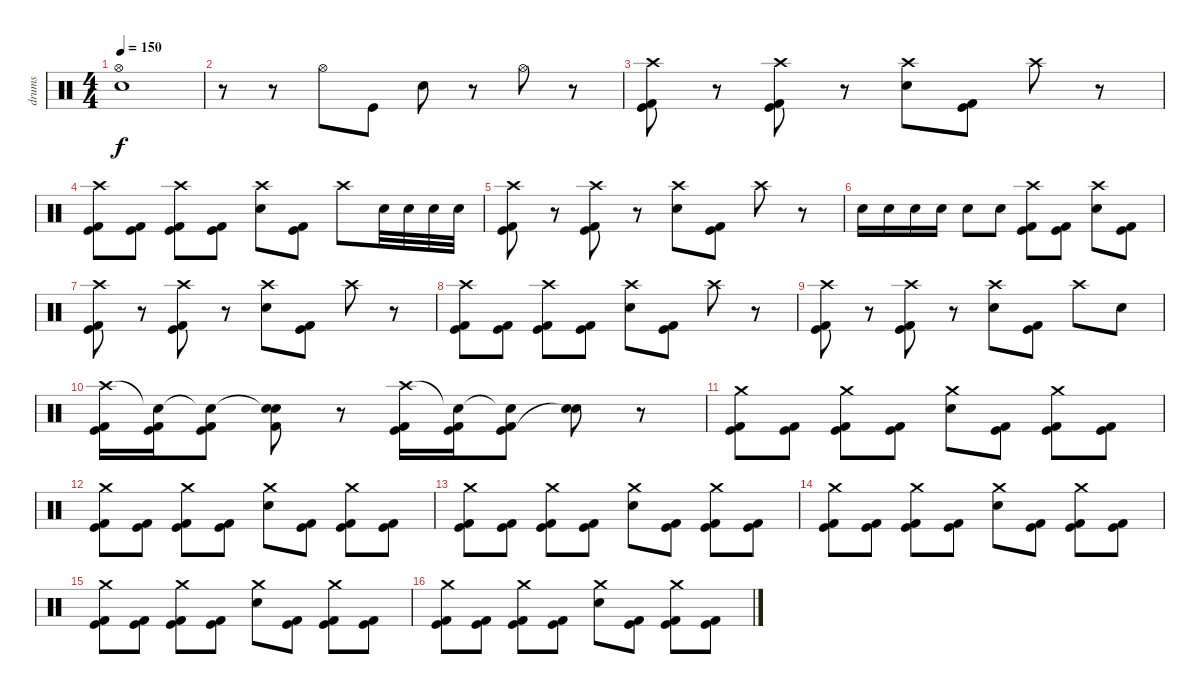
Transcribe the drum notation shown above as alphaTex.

\track ("drums" "drums") {instrument percussion}
\staff {score}
\articulation defaults
\ts (4 4)
\tempo 150
\clef neutral
\ks c
("Electric Snare (hit)" "Hi-Hat (open)").1{dy f} |
r.8 r.8 "Hi-Hat (open)".8 "Kick (hit)".8 "Electric Snare (hit)".8 r.8 "Hi-Hat (open)".8 r.8 |
("Kick (hit)" "Kick (hit) 2" "Crash high (hit)").8 r.8 ("Kick (hit)" "Kick (hit) 2" "Crash high (hit)").8 r.8 ("Electric Snare (hit)" "Crash high (hit)").8 ("Kick (hit)" "Kick (hit) 2").8 "Crash high (hit)".8 r.8 |
("Kick (hit)" "Kick (hit) 2" "Crash high (hit)").8 ("Kick (hit)" "Kick (hit) 2").8 ("Kick (hit)" "Kick (hit) 2" "Crash high (hit)").8 ("Kick (hit)" "Kick (hit) 2").8 ("Electric Snare (hit)" "Crash high (hit)").8 ("Kick (hit)" "Kick (hit) 2").8 "Crash high (hit)".8 "Electric Snare (hit)".32 "Electric Snare (hit)".32 "Electric Snare (hit)".32 "Electric Snare (hit)".32 |
("Kick (hit)" "Kick (hit) 2" "Crash high (hit)").8 r.8 ("Kick (hit)" "Kick (hit) 2" "Crash high (hit)").8 r.8 ("Electric Snare (hit)" "Crash high (hit)").8 ("Kick (hit)" "Kick (hit) 2").8 "Crash high (hit)".8 r.8 |
"Electric Snare (hit)".16 "Electric Snare (hit)".16 "Electric Snare (hit)".16 "Electric Snare (hit)".16 "Electric Snare (hit)".8 "Electric Snare (hit)".8 ("Kick (hit)" "Kick (hit) 2" "Crash high (hit)").8 ("Kick (hit)" "Kick (hit) 2").8 ("Electric Snare (hit)" "Crash high (hit)").8 ("Kick (hit)" "Kick (hit) 2").8 |
("Kick (hit)" "Kick (hit) 2" "Crash high (hit)").8 r.8 ("Kick (hit)" "Kick (hit) 2" "Crash high (hit)").8 r.8 ("Electric Snare (hit)" "Crash high (hit)").8 ("Kick (hit)" "Kick (hit) 2").8 "Crash high (hit)".8 r.8 |
("Kick (hit)" "Kick (hit) 2" "Crash high (hit)").8 ("Kick (hit)" "Kick (hit) 2").8 ("Kick (hit)" "Kick (hit) 2" "Crash high (hit)").8 ("Kick (hit)" "Kick (hit) 2").8 ("Electric Snare (hit)" "Crash high (hit)").8 ("Kick (hit)" "Kick (hit) 2").8 "Crash high (hit)".8 r.8 |
("Kick (hit)" "Kick (hit) 2" "Crash high (hit)").8 r.8 ("Kick (hit)" "Kick (hit) 2" "Crash high (hit)").8 r.8 ("Electric Snare (hit)" "Crash high (hit)").8 ("Kick (hit)" "Kick (hit) 2").8 "Crash high (hit)".8 "Electric Snare (hit)".8 |
("Kick (hit)" "Kick (hit) 2" "Crash high (hit)").16 ("Kick (hit)" "Kick (hit) 2" "Snare (hit)"{t}).16 ("Kick (hit)" "Kick (hit) 2" "Snare (hit)"{t}).8 ("Electric Snare (hit)" "Kick (hit) 2" "Snare (hit)"{t}).8 r.8 ("Kick (hit) 2" "Kick (hit)" "Crash high (hit)").16 ("Kick (hit) 2" "Kick (hit)" "Snare (hit)"{t}).16 ("Kick (hit) 2" "Kick (hit)" "Snare (hit)"{t}).8 ("Electric Snare (hit)" "Snare (hit)"{t}).8 r.8 |
("Kick (hit)" "Kick (hit) 2" "Crash medium (hit)").8 ("Kick (hit)" "Kick (hit) 2").8 ("Kick (hit)" "Kick (hit) 2" "Crash medium (hit)").8 ("Kick (hit)" "Kick (hit) 2").8 ("Electric Snare (hit)" "Crash medium (hit)").8 ("Kick (hit)" "Kick (hit) 2").8 ("Kick (hit)" "Kick (hit) 2" "Crash medium (hit)").8 ("Kick (hit)" "Kick (hit) 2").8 |
("Kick (hit)" "Kick (hit) 2" "Crash medium (hit)").8 ("Kick (hit)" "Kick (hit) 2").8 ("Kick (hit)" "Kick (hit) 2" "Crash medium (hit)").8 ("Kick (hit)" "Kick (hit) 2").8 ("Electric Snare (hit)" "Crash medium (hit)").8 ("Kick (hit)" "Kick (hit) 2").8 ("Kick (hit)" "Kick (hit) 2" "Crash medium (hit)").8 ("Kick (hit)" "Kick (hit) 2").8 |
("Kick (hit)" "Kick (hit) 2" "Crash medium (hit)").8 ("Kick (hit)" "Kick (hit) 2").8 ("Kick (hit)" "Kick (hit) 2" "Crash medium (hit)").8 ("Kick (hit)" "Kick (hit) 2").8 ("Electric Snare (hit)" "Crash medium (hit)").8 ("Kick (hit)" "Kick (hit) 2").8 ("Kick (hit)" "Kick (hit) 2" "Crash medium (hit)").8 ("Kick (hit)" "Kick (hit) 2").8 |
("Kick (hit)" "Kick (hit) 2" "Crash medium (hit)").8 ("Kick (hit)" "Kick (hit) 2").8 ("Kick (hit)" "Kick (hit) 2" "Crash medium (hit)").8 ("Kick (hit)" "Kick (hit) 2").8 ("Electric Snare (hit)" "Crash medium (hit)").8 ("Kick (hit)" "Kick (hit) 2").8 ("Kick (hit)" "Kick (hit) 2" "Crash medium (hit)").8 ("Kick (hit)" "Kick (hit) 2").8 |
("Kick (hit)" "Kick (hit) 2" "Crash medium (hit)").8 ("Kick (hit)" "Kick (hit) 2").8 ("Kick (hit)" "Kick (hit) 2" "Crash medium (hit)").8 ("Kick (hit)" "Kick (hit) 2").8 ("Electric Snare (hit)" "Crash medium (hit)").8 ("Kick (hit)" "Kick (hit) 2").8 ("Kick (hit)" "Kick (hit) 2" "Crash medium (hit)").8 ("Kick (hit)" "Kick (hit) 2").8 |
("Kick (hit)" "Kick (hit) 2" "Crash medium (hit)").8 ("Kick (hit)" "Kick (hit) 2").8 ("Kick (hit)" "Kick (hit) 2" "Crash medium (hit)").8 ("Kick (hit)" "Kick (hit) 2").8 ("Electric Snare (hit)" "Crash medium (hit)").8 ("Kick (hit)" "Kick (hit) 2").8 ("Kick (hit)" "Kick (hit) 2" "Crash medium (hit)").8 ("Kick (hit)" "Kick (hit) 2").8
